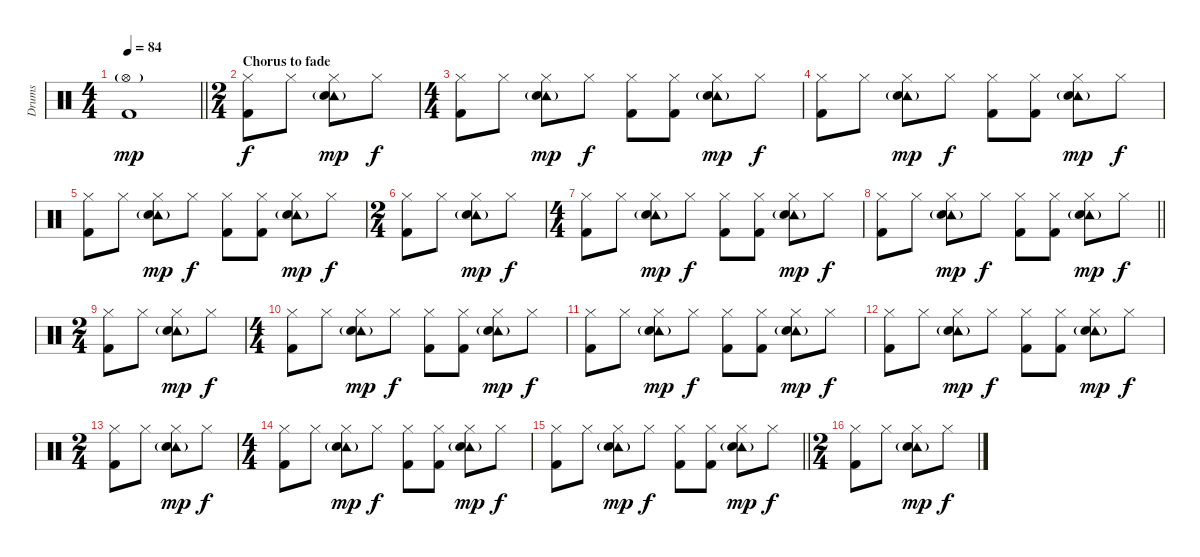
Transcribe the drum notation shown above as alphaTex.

\track ("Drums" "Drums") {instrument percussion}
\staff {score}
\articulation defaults
\ts (4 4)
\tempo 84
\clef neutral
\barLineRight lightlight
\ks c
("Hi-Hat (open)"{g} "Kick (hit) 2").1{dy mp} |
\ts (2 4)
\section ("" "Chorus to fade")
("Hi-Hat (closed)" "Kick (hit) 2").8{dy f} "Hi-Hat (closed)".8 ("Hi-Hat (closed)" "Tambourine (hit)"{g} "Snare (hit) 2").8{dy mp} "Hi-Hat (closed)".8{dy f} |
\ts (4 4)
("Hi-Hat (closed)" "Kick (hit) 2").8 "Hi-Hat (closed)".8 ("Hi-Hat (closed)" "Tambourine (hit)"{g} "Snare (hit) 2").8{dy mp} "Hi-Hat (closed)".8{dy f} ("Hi-Hat (closed)" "Kick (hit) 2").8 ("Hi-Hat (closed)" "Kick (hit) 2").8 ("Hi-Hat (closed)" "Tambourine (hit)"{g} "Snare (hit) 2").8{dy mp} "Hi-Hat (closed)".8{dy f} |
("Hi-Hat (closed)" "Kick (hit) 2").8 "Hi-Hat (closed)".8 ("Hi-Hat (closed)" "Tambourine (hit)"{g} "Snare (hit) 2").8{dy mp} "Hi-Hat (closed)".8{dy f} ("Hi-Hat (closed)" "Kick (hit) 2").8 ("Hi-Hat (closed)" "Kick (hit) 2").8 ("Hi-Hat (closed)" "Tambourine (hit)"{g} "Snare (hit) 2").8{dy mp} "Hi-Hat (closed)".8{dy f} |
("Hi-Hat (closed)" "Kick (hit) 2").8 "Hi-Hat (closed)".8 ("Hi-Hat (closed)" "Tambourine (hit)"{g} "Snare (hit) 2").8{dy mp} "Hi-Hat (closed)".8{dy f} ("Hi-Hat (closed)" "Kick (hit) 2").8 ("Hi-Hat (closed)" "Kick (hit) 2").8 ("Hi-Hat (closed)" "Tambourine (hit)"{g} "Snare (hit) 2").8{dy mp} "Hi-Hat (closed)".8{dy f} |
\ts (2 4)
("Hi-Hat (closed)" "Kick (hit) 2").8 "Hi-Hat (closed)".8 ("Hi-Hat (closed)" "Tambourine (hit)"{g} "Snare (hit) 2").8{dy mp} "Hi-Hat (closed)".8{dy f} |
\ts (4 4)
("Hi-Hat (closed)" "Kick (hit) 2").8 "Hi-Hat (closed)".8 ("Hi-Hat (closed)" "Tambourine (hit)"{g} "Snare (hit) 2").8{dy mp} "Hi-Hat (closed)".8{dy f} ("Hi-Hat (closed)" "Kick (hit) 2").8 ("Hi-Hat (closed)" "Kick (hit) 2").8 ("Hi-Hat (closed)" "Tambourine (hit)"{g} "Snare (hit) 2").8{dy mp} "Hi-Hat (closed)".8{dy f} |
\barLineRight lightlight
("Hi-Hat (closed)" "Kick (hit) 2").8 "Hi-Hat (closed)".8 ("Hi-Hat (closed)" "Tambourine (hit)"{g} "Snare (hit) 2").8{dy mp} "Hi-Hat (closed)".8{dy f} ("Hi-Hat (closed)" "Kick (hit) 2").8 ("Hi-Hat (closed)" "Kick (hit) 2").8 ("Hi-Hat (closed)" "Tambourine (hit)"{g} "Snare (hit) 2").8{dy mp} "Hi-Hat (closed)".8{dy f} |
\ts (2 4)
("Hi-Hat (closed)" "Kick (hit) 2").8 "Hi-Hat (closed)".8 ("Hi-Hat (closed)" "Tambourine (hit)"{g} "Snare (hit) 2").8{dy mp} "Hi-Hat (closed)".8{dy f} |
\ts (4 4)
("Hi-Hat (closed)" "Kick (hit) 2").8 "Hi-Hat (closed)".8 ("Hi-Hat (closed)" "Tambourine (hit)"{g} "Snare (hit) 2").8{dy mp} "Hi-Hat (closed)".8{dy f} ("Hi-Hat (closed)" "Kick (hit) 2").8 ("Hi-Hat (closed)" "Kick (hit) 2").8 ("Hi-Hat (closed)" "Tambourine (hit)"{g} "Snare (hit) 2").8{dy mp} "Hi-Hat (closed)".8{dy f} |
("Hi-Hat (closed)" "Kick (hit) 2").8 "Hi-Hat (closed)".8 ("Hi-Hat (closed)" "Tambourine (hit)"{g} "Snare (hit) 2").8{dy mp} "Hi-Hat (closed)".8{dy f} ("Hi-Hat (closed)" "Kick (hit) 2").8 ("Hi-Hat (closed)" "Kick (hit) 2").8 ("Hi-Hat (closed)" "Tambourine (hit)"{g} "Snare (hit) 2").8{dy mp} "Hi-Hat (closed)".8{dy f} |
("Hi-Hat (closed)" "Kick (hit) 2").8 "Hi-Hat (closed)".8 ("Hi-Hat (closed)" "Tambourine (hit)"{g} "Snare (hit) 2").8{dy mp} "Hi-Hat (closed)".8{dy f} ("Hi-Hat (closed)" "Kick (hit) 2").8 ("Hi-Hat (closed)" "Kick (hit) 2").8 ("Hi-Hat (closed)" "Tambourine (hit)"{g} "Snare (hit) 2").8{dy mp} "Hi-Hat (closed)".8{dy f} |
\ts (2 4)
("Hi-Hat (closed)" "Kick (hit) 2").8 "Hi-Hat (closed)".8 ("Hi-Hat (closed)" "Tambourine (hit)"{g} "Snare (hit) 2").8{dy mp} "Hi-Hat (closed)".8{dy f} |
\ts (4 4)
("Hi-Hat (closed)" "Kick (hit) 2").8 "Hi-Hat (closed)".8 ("Hi-Hat (closed)" "Tambourine (hit)"{g} "Snare (hit) 2").8{dy mp} "Hi-Hat (closed)".8{dy f} ("Hi-Hat (closed)" "Kick (hit) 2").8 ("Hi-Hat (closed)" "Kick (hit) 2").8 ("Hi-Hat (closed)" "Tambourine (hit)"{g} "Snare (hit) 2").8{dy mp} "Hi-Hat (closed)".8{dy f} |
\barLineRight lightlight
("Hi-Hat (closed)" "Kick (hit) 2").8 "Hi-Hat (closed)".8 ("Hi-Hat (closed)" "Tambourine (hit)"{g} "Snare (hit) 2").8{dy mp} "Hi-Hat (closed)".8{dy f} ("Hi-Hat (closed)" "Kick (hit) 2").8 ("Hi-Hat (closed)" "Kick (hit) 2").8 ("Hi-Hat (closed)" "Tambourine (hit)"{g} "Snare (hit) 2").8{dy mp} "Hi-Hat (closed)".8{dy f} |
\ts (2 4)
("Hi-Hat (closed)" "Kick (hit) 2").8 "Hi-Hat (closed)".8 ("Hi-Hat (closed)" "Tambourine (hit)"{g} "Snare (hit) 2").8{dy mp} "Hi-Hat (closed)".8{dy f}
